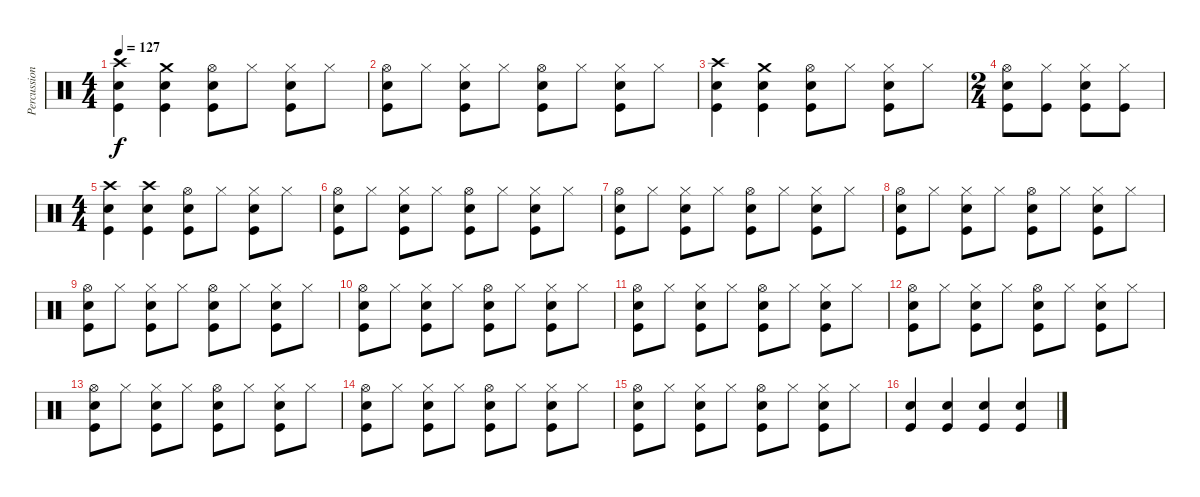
\track ("Percussion" "Percussion") {instrument percussion}
\staff {score}
\articulation defaults
\ts (4 4)
\tempo 127
\clef neutral
\ks c
("Crash high (hit)" "Snare (hit) 2" "Kick (hit)").4{dy f} ("Crash medium (hit)" "Snare (hit) 2" "Kick (hit)").4 ("Hi-Hat (open)" "Snare (hit) 2" "Kick (hit)").8 "Hi-Hat (closed)".8 ("Hi-Hat (closed)" "Snare (hit) 2" "Kick (hit)").8 "Hi-Hat (closed)".8 |
("Hi-Hat (open)" "Snare (hit) 2" "Kick (hit)").8 "Hi-Hat (closed)".8 ("Hi-Hat (closed)" "Snare (hit) 2" "Kick (hit)").8 "Hi-Hat (closed)".8 ("Hi-Hat (open)" "Snare (hit) 2" "Kick (hit)").8 "Hi-Hat (closed)".8 ("Hi-Hat (closed)" "Snare (hit) 2" "Kick (hit)").8 "Hi-Hat (closed)".8 |
("Crash high (hit)" "Snare (hit) 2" "Kick (hit)").4 ("Crash medium (hit)" "Snare (hit) 2" "Kick (hit)").4 ("Hi-Hat (open)" "Snare (hit) 2" "Kick (hit)").8 "Hi-Hat (closed)".8 ("Hi-Hat (closed)" "Snare (hit) 2" "Kick (hit)").8 "Hi-Hat (closed)".8 |
\ts (2 4)
("Hi-Hat (open)" "Snare (hit) 2" "Kick (hit)").8 ("Hi-Hat (closed)" "Kick (hit)").8 ("Hi-Hat (closed)" "Snare (hit) 2" "Kick (hit)").8 ("Hi-Hat (closed)" "Kick (hit)").8 |
\ts (4 4)
("Crash high (hit)" "Snare (hit) 2" "Kick (hit)").4 ("Crash high (hit)" "Snare (hit) 2" "Kick (hit)").4 ("Hi-Hat (open)" "Snare (hit) 2" "Kick (hit)").8 "Hi-Hat (closed)".8 ("Hi-Hat (closed)" "Snare (hit) 2" "Kick (hit)").8 "Hi-Hat (closed)".8 |
("Hi-Hat (open)" "Snare (hit) 2" "Kick (hit)").8 "Hi-Hat (closed)".8 ("Hi-Hat (closed)" "Snare (hit) 2" "Kick (hit)").8 "Hi-Hat (closed)".8 ("Hi-Hat (open)" "Snare (hit) 2" "Kick (hit)").8 "Hi-Hat (closed)".8 ("Hi-Hat (closed)" "Snare (hit) 2" "Kick (hit)").8 "Hi-Hat (closed)".8 |
("Hi-Hat (open)" "Snare (hit) 2" "Kick (hit)").8 "Hi-Hat (closed)".8 ("Hi-Hat (closed)" "Snare (hit) 2" "Kick (hit)").8 "Hi-Hat (closed)".8 ("Hi-Hat (open)" "Snare (hit) 2" "Kick (hit)").8 "Hi-Hat (closed)".8 ("Hi-Hat (closed)" "Snare (hit) 2" "Kick (hit)").8 "Hi-Hat (closed)".8 |
("Hi-Hat (open)" "Snare (hit) 2" "Kick (hit)").8 "Hi-Hat (closed)".8 ("Hi-Hat (closed)" "Snare (hit) 2" "Kick (hit)").8 "Hi-Hat (closed)".8 ("Hi-Hat (open)" "Snare (hit) 2" "Kick (hit)").8 "Hi-Hat (closed)".8 ("Hi-Hat (closed)" "Snare (hit) 2" "Kick (hit)").8 "Hi-Hat (closed)".8 |
("Hi-Hat (open)" "Snare (hit) 2" "Kick (hit)").8 "Hi-Hat (closed)".8 ("Hi-Hat (closed)" "Snare (hit) 2" "Kick (hit)").8 "Hi-Hat (closed)".8 ("Hi-Hat (open)" "Snare (hit) 2" "Kick (hit)").8 "Hi-Hat (closed)".8 ("Hi-Hat (closed)" "Snare (hit) 2" "Kick (hit)").8 "Hi-Hat (closed)".8 |
("Hi-Hat (open)" "Snare (hit) 2" "Kick (hit)").8 "Hi-Hat (closed)".8 ("Hi-Hat (closed)" "Snare (hit) 2" "Kick (hit)").8 "Hi-Hat (closed)".8 ("Hi-Hat (open)" "Snare (hit) 2" "Kick (hit)").8 "Hi-Hat (closed)".8 ("Hi-Hat (closed)" "Snare (hit) 2" "Kick (hit)").8 "Hi-Hat (closed)".8 |
("Hi-Hat (open)" "Snare (hit) 2" "Kick (hit)").8 "Hi-Hat (closed)".8 ("Hi-Hat (closed)" "Snare (hit) 2" "Kick (hit)").8 "Hi-Hat (closed)".8 ("Hi-Hat (open)" "Snare (hit) 2" "Kick (hit)").8 "Hi-Hat (closed)".8 ("Hi-Hat (closed)" "Snare (hit) 2" "Kick (hit)").8 "Hi-Hat (closed)".8 |
("Hi-Hat (open)" "Snare (hit) 2" "Kick (hit)").8 "Hi-Hat (closed)".8 ("Hi-Hat (closed)" "Snare (hit) 2" "Kick (hit)").8 "Hi-Hat (closed)".8 ("Hi-Hat (open)" "Snare (hit) 2" "Kick (hit)").8 "Hi-Hat (closed)".8 ("Hi-Hat (closed)" "Snare (hit) 2" "Kick (hit)").8 "Hi-Hat (closed)".8 |
("Hi-Hat (open)" "Snare (hit) 2" "Kick (hit)").8 "Hi-Hat (closed)".8 ("Hi-Hat (closed)" "Snare (hit) 2" "Kick (hit)").8 "Hi-Hat (closed)".8 ("Hi-Hat (open)" "Snare (hit) 2" "Kick (hit)").8 "Hi-Hat (closed)".8 ("Hi-Hat (closed)" "Snare (hit) 2" "Kick (hit)").8 "Hi-Hat (closed)".8 |
("Hi-Hat (open)" "Snare (hit) 2" "Kick (hit)").8 "Hi-Hat (closed)".8 ("Hi-Hat (closed)" "Snare (hit) 2" "Kick (hit)").8 "Hi-Hat (closed)".8 ("Hi-Hat (open)" "Snare (hit) 2" "Kick (hit)").8 "Hi-Hat (closed)".8 ("Hi-Hat (closed)" "Snare (hit) 2" "Kick (hit)").8 "Hi-Hat (closed)".8 |
("Hi-Hat (open)" "Snare (hit) 2" "Kick (hit)").8 "Hi-Hat (closed)".8 ("Hi-Hat (closed)" "Snare (hit) 2" "Kick (hit)").8 "Hi-Hat (closed)".8 ("Hi-Hat (open)" "Snare (hit) 2" "Kick (hit)").8 "Hi-Hat (closed)".8 ("Hi-Hat (closed)" "Snare (hit) 2" "Kick (hit)").8 "Hi-Hat (closed)".8 |
("Snare (hit) 2" "Kick (hit)").4 ("Snare (hit) 2" "Kick (hit)").4 ("Snare (hit) 2" "Kick (hit)").4 ("Snare (hit) 2" "Kick (hit)").4
